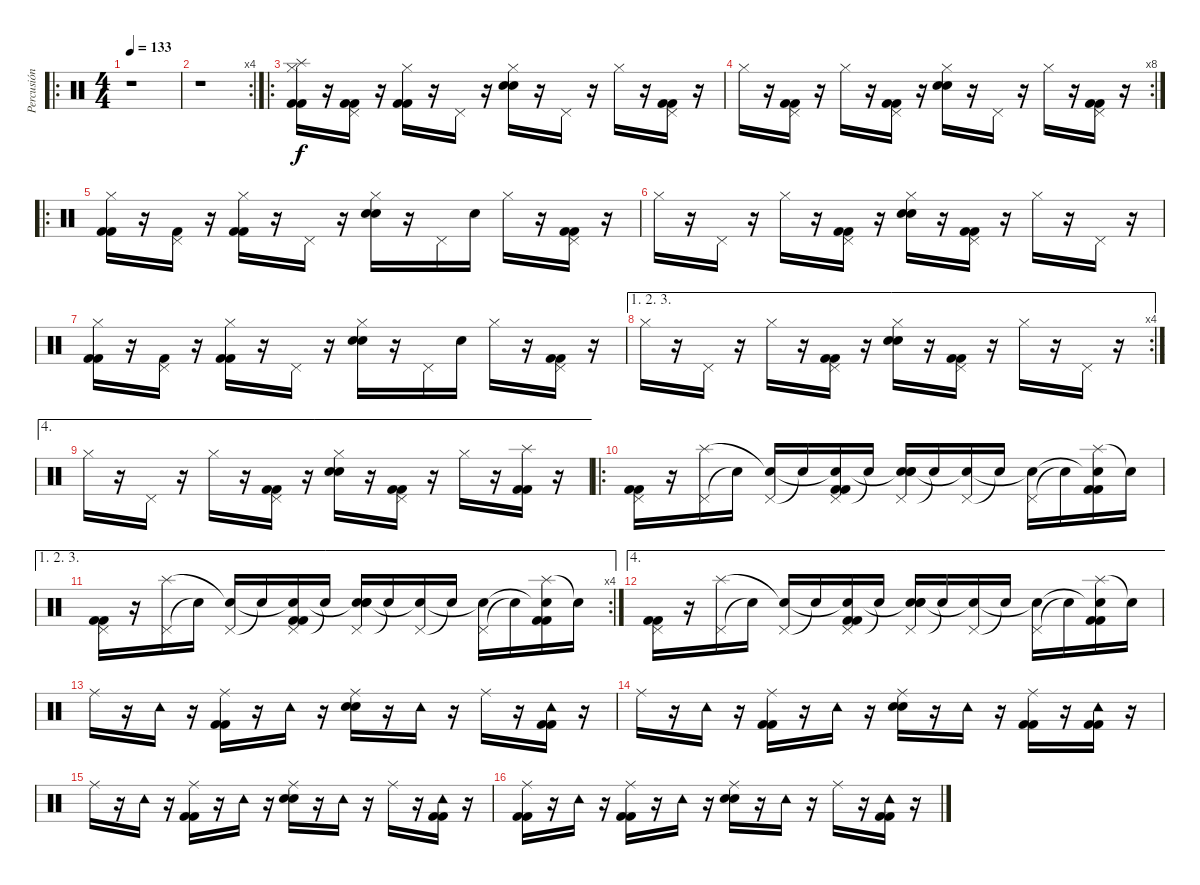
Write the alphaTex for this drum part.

\track ("Percusión" "Percusión") {instrument percussion}
\staff {score}
\articulation defaults
\ro
\ts (4 4)
\tempo 133
\clef neutral
\ks c
r.1{dy f} |
\rc 4
r.1 |
\ro
("Hi-Hat (closed)" "Splash (hit)" "Kick (hit) 2" "Kick (hit) 2").16 r.16 ("Pedal Hi-Hat (hit)" "Kick (hit) 2" "Kick (hit) 2").16 r.16 ("Hi-Hat (closed)" "Kick (hit) 2" "Kick (hit) 2").16 r.16 "Pedal Hi-Hat (hit)".16 r.16 ("Hi-Hat (closed)" "Electric Snare (hit)" "Electric Snare (hit)").16 r.16 "Pedal Hi-Hat (hit)".16 r.16 "Hi-Hat (closed)".16 r.16 ("Pedal Hi-Hat (hit)" "Kick (hit) 2" "Kick (hit) 2").16 r.16 |
\rc 8 "Hi-Hat (closed)".16
r.16 ("Pedal Hi-Hat (hit)" "Kick (hit) 2" "Kick (hit) 2").16 r.16 "Hi-Hat (closed)".16 r.16 ("Pedal Hi-Hat (hit)" "Kick (hit) 2" "Kick (hit) 2").16 r.16 ("Hi-Hat (closed)" "Electric Snare (hit)" "Electric Snare (hit)").16 r.16 "Pedal Hi-Hat (hit)".16 r.16 "Hi-Hat (closed)".16 r.16 ("Pedal Hi-Hat (hit)" "Kick (hit) 2" "Kick (hit) 2").16 r.16 |
\ro
("Hi-Hat (closed)" "Kick (hit) 2" "Kick (hit) 2").16 r.16 ("Pedal Hi-Hat (hit)" "Kick (hit) 2").16 r.16 ("Hi-Hat (closed)" "Kick (hit) 2" "Kick (hit) 2").16 r.16 "Pedal Hi-Hat (hit)".16 r.16 ("Hi-Hat (closed)" "Electric Snare (hit)" "Electric Snare (hit)").16 r.16 "Pedal Hi-Hat (hit)".16 "Electric Snare (hit)".16 "Hi-Hat (closed)".16 r.16 ("Pedal Hi-Hat (hit)" "Kick (hit) 2" "Kick (hit) 2").16 r.16 |
"Hi-Hat (closed)".16 r.16 "Pedal Hi-Hat (hit)".16 r.16 "Hi-Hat (closed)".16 r.16 ("Pedal Hi-Hat (hit)" "Kick (hit) 2" "Kick (hit) 2").16 r.16 ("Hi-Hat (closed)" "Electric Snare (hit)" "Electric Snare (hit)").16 r.16 ("Pedal Hi-Hat (hit)" "Kick (hit) 2" "Kick (hit) 2").16 r.16 "Hi-Hat (closed)".16 r.16 "Pedal Hi-Hat (hit)".16 r.16 |
("Hi-Hat (closed)" "Kick (hit) 2" "Kick (hit) 2").16 r.16 ("Pedal Hi-Hat (hit)" "Kick (hit) 2").16 r.16 ("Hi-Hat (closed)" "Kick (hit) 2" "Kick (hit) 2").16 r.16 "Pedal Hi-Hat (hit)".16 r.16 ("Hi-Hat (closed)" "Electric Snare (hit)" "Electric Snare (hit)").16 r.16 "Pedal Hi-Hat (hit)".16 "Electric Snare (hit)".16 "Hi-Hat (closed)".16 r.16 ("Pedal Hi-Hat (hit)" "Kick (hit) 2" "Kick (hit) 2").16 r.16 |
\ae (1 2 3)
\rc 4 "Hi-Hat (closed)".16
r.16 "Pedal Hi-Hat (hit)".16 r.16 "Hi-Hat (closed)".16 r.16 ("Pedal Hi-Hat (hit)" "Kick (hit) 2" "Kick (hit) 2").16 r.16 ("Hi-Hat (closed)" "Electric Snare (hit)" "Electric Snare (hit)").16 r.16 ("Pedal Hi-Hat (hit)" "Kick (hit) 2" "Kick (hit) 2").16 r.16 "Hi-Hat (closed)".16 r.16 "Pedal Hi-Hat (hit)".16 r.16 |
\ae 4 "Hi-Hat (closed)".16
r.16 "Pedal Hi-Hat (hit)".16 r.16 "Hi-Hat (closed)".16 r.16 ("Pedal Hi-Hat (hit)" "Kick (hit) 2" "Kick (hit) 2").16 r.16 ("Hi-Hat (closed)" "Electric Snare (hit)" "Electric Snare (hit)").16 r.16 ("Pedal Hi-Hat (hit)" "Kick (hit) 2" "Kick (hit) 2").16 r.16 "Hi-Hat (closed)".16 r.16 ("Splash (hit)" "Kick (hit) 2" "Kick (hit) 2").16 r.16 |
\ro
("Pedal Hi-Hat (hit)" "Kick (hit) 2" "Kick (hit) 2").16 r.16 ("Pedal Hi-Hat (hit)" "Splash (hit)").16 "Snare (hit)"{t}.16 ("Pedal Hi-Hat (hit)" "Snare (hit)"{t}).16 "Snare (hit)"{t}.16 ("Pedal Hi-Hat (hit)" "Snare (hit)"{t} "Kick (hit) 2" "Kick (hit) 2").16 "Snare (hit)"{t}.16 ("Pedal Hi-Hat (hit)" "Snare (hit)"{t} "Electric Snare (hit)" "Electric Snare (hit)").16 "Snare (hit)"{t}.16 ("Pedal Hi-Hat (hit)" "Snare (hit)"{t}).16 "Snare (hit)"{t}.16 ("Pedal Hi-Hat (hit)" "Snare (hit)"{t}).16 "Snare (hit)"{t}.16 ("Splash (hit)" "Snare (hit)"{t} "Kick (hit) 2" "Kick (hit) 2").16 "Snare (hit)"{t}.16 |
\ae (1 2 3)
\rc 4
("Pedal Hi-Hat (hit)" "Kick (hit) 2" "Kick (hit) 2").16 r.16 ("Pedal Hi-Hat (hit)" "Splash (hit)").16 "Snare (hit)"{t}.16 ("Pedal Hi-Hat (hit)" "Snare (hit)"{t}).16 "Snare (hit)"{t}.16 ("Pedal Hi-Hat (hit)" "Snare (hit)"{t} "Kick (hit) 2" "Kick (hit) 2").16 "Snare (hit)"{t}.16 ("Pedal Hi-Hat (hit)" "Snare (hit)"{t} "Electric Snare (hit)" "Electric Snare (hit)").16 "Snare (hit)"{t}.16 ("Pedal Hi-Hat (hit)" "Snare (hit)"{t}).16 "Snare (hit)"{t}.16 ("Pedal Hi-Hat (hit)" "Snare (hit)"{t}).16 "Snare (hit)"{t}.16 ("Splash (hit)" "Snare (hit)"{t} "Kick (hit) 2" "Kick (hit) 2").16 "Snare (hit)"{t}.16 |
\ae 4
("Pedal Hi-Hat (hit)" "Kick (hit) 2" "Kick (hit) 2").16 r.16 ("Pedal Hi-Hat (hit)" "Splash (hit)").16 "Snare (hit)"{t}.16 ("Pedal Hi-Hat (hit)" "Snare (hit)"{t}).16 "Snare (hit)"{t}.16 ("Pedal Hi-Hat (hit)" "Snare (hit)"{t} "Kick (hit) 2" "Kick (hit) 2").16 "Snare (hit)"{t}.16 ("Pedal Hi-Hat (hit)" "Snare (hit)"{t} "Electric Snare (hit)" "Electric Snare (hit)").16 "Snare (hit)"{t}.16 ("Pedal Hi-Hat (hit)" "Snare (hit)"{t}).16 "Snare (hit)"{t}.16 ("Pedal Hi-Hat (hit)" "Snare (hit)"{t}).16 "Snare (hit)"{t}.16 ("Splash (hit)" "Snare (hit)"{t} "Kick (hit) 2" "Kick (hit) 2").16 "Snare (hit)"{t}.16 |
"Ride (middle)".16 r.16 "Tambourine (hit)".16 r.16 ("Ride (middle)" "Kick (hit) 2" "Kick (hit) 2").16 r.16 "Tambourine (hit)".16 r.16 ("Ride (middle)" "Electric Snare (hit)" "Electric Snare (hit)").16 r.16 "Tambourine (hit)".16 r.16 "Ride (middle)".16 r.16 ("Tambourine (hit)" "Kick (hit) 2" "Kick (hit) 2").16 r.16 |
"Ride (middle)".16 r.16 "Tambourine (hit)".16 r.16 ("Ride (middle)" "Kick (hit) 2" "Kick (hit) 2").16 r.16 "Tambourine (hit)".16 r.16 ("Ride (middle)" "Electric Snare (hit)" "Electric Snare (hit)").16 r.16 "Tambourine (hit)".16 r.16 ("Ride (middle)" "Kick (hit) 2" "Kick (hit) 2").16 r.16 ("Tambourine (hit)" "Kick (hit) 2" "Kick (hit) 2").16 r.16 |
"Ride (middle)".16 r.16 "Tambourine (hit)".16 r.16 ("Ride (middle)" "Kick (hit) 2" "Kick (hit) 2").16 r.16 "Tambourine (hit)".16 r.16 ("Ride (middle)" "Electric Snare (hit)" "Electric Snare (hit)").16 r.16 "Tambourine (hit)".16 r.16 "Ride (middle)".16 r.16 ("Tambourine (hit)" "Kick (hit) 2" "Kick (hit) 2").16 r.16 |
("Ride (middle)" "Kick (hit) 2" "Kick (hit) 2").16 r.16 "Tambourine (hit)".16 r.16 ("Ride (middle)" "Kick (hit) 2" "Kick (hit) 2").16 r.16 "Tambourine (hit)".16 r.16 ("Ride (middle)" "Electric Snare (hit)" "Electric Snare (hit)").16 r.16 "Tambourine (hit)".16 r.16 "Ride (middle)".16 r.16 ("Tambourine (hit)" "Kick (hit) 2" "Kick (hit) 2").16 r.16
